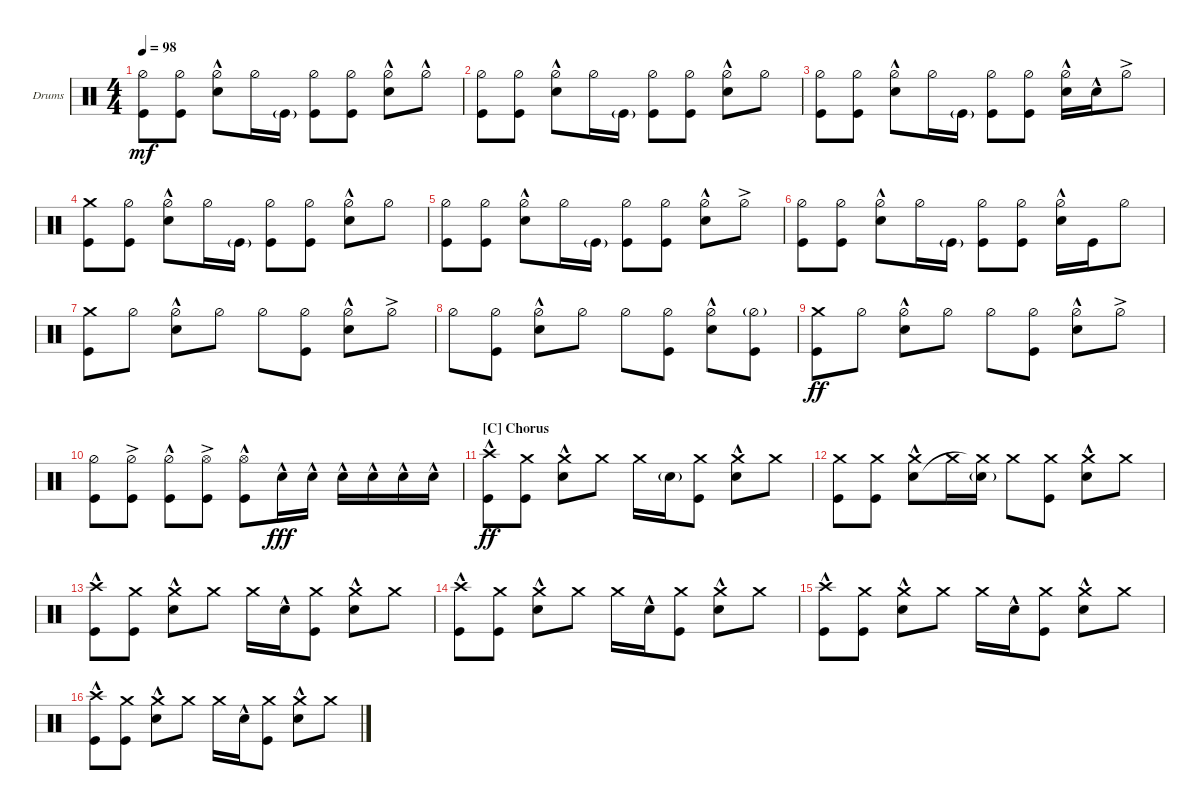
\defaultSystemsLayout 4
\bracketExtendMode groupsimilarinstruments
\firstSystemTrackNameOrientation horizontal
\otherSystemsTrackNameOrientation horizontal
\track ("Drumkit (Chad Smith)" "Drums") {instrument percussion}
\staff {score}
\articulation defaults
\ts (4 4)
\tempo 98
\clef neutral
\scale
0.333333
\ks c
("Kick (hit)" "Hi-Hat (half)").8{dy mf} ("Kick (hit)" "Hi-Hat (half)").8 ("Snare (hit) 2"{hac} "Hi-Hat (half)").8 "Hi-Hat (half)".16 "Kick (hit)"{g}.16 ("Kick (hit)" "Hi-Hat (half)").8 ("Kick (hit)" "Hi-Hat (half)").8 ("Snare (hit) 2"{hac} "Hi-Hat (half)").8 "Hi-Hat (half)"{hac}.8 |
\scale
0.333333 ("Kick (hit)" "Hi-Hat (half)").8 ("Kick (hit)" "Hi-Hat (half)").8 ("Snare (hit) 2"{hac} "Hi-Hat (half)").8 "Hi-Hat (half)".16 "Kick (hit)"{g}.16 ("Kick (hit)" "Hi-Hat (half)").8 ("Kick (hit)" "Hi-Hat (half)").8 ("Snare (hit) 2"{hac} "Hi-Hat (half)").8 "Hi-Hat (half)".8 |
\scale
0.333333 ("Kick (hit)" "Hi-Hat (half)").8 ("Kick (hit)" "Hi-Hat (half)").8 ("Snare (hit) 2"{hac} "Hi-Hat (half)").8 "Hi-Hat (half)".16 "Kick (hit)"{g}.16 ("Kick (hit)" "Hi-Hat (half)").8 ("Kick (hit)" "Hi-Hat (half)").8 ("Snare (hit) 2"{hac} "Hi-Hat (half)").16 "Snare (hit) 2"{hac}.16 "Hi-Hat (half)"{ac}.8 |
\scale
0.333333 ("Kick (hit)" "Crash medium (hit)").8 ("Kick (hit)" "Hi-Hat (half)").8 ("Snare (hit) 2"{hac} "Hi-Hat (half)").8 "Hi-Hat (half)".16 "Kick (hit)"{g}.16 ("Kick (hit)" "Hi-Hat (half)").8 ("Kick (hit)" "Hi-Hat (half)").8 ("Snare (hit) 2"{hac} "Hi-Hat (half)").8 "Hi-Hat (half)".8 |
\scale
0.333333 ("Kick (hit)" "Hi-Hat (half)").8 ("Kick (hit)" "Hi-Hat (half)").8 ("Snare (hit) 2"{hac} "Hi-Hat (half)").8 "Hi-Hat (half)".16 "Kick (hit)"{g}.16 ("Kick (hit)" "Hi-Hat (half)").8 ("Kick (hit)" "Hi-Hat (half)").8 ("Snare (hit) 2"{hac} "Hi-Hat (half)").8 "Hi-Hat (half)"{ac}.8 |
\scale
0.333333 ("Kick (hit)" "Hi-Hat (half)").8 ("Kick (hit)" "Hi-Hat (half)").8 ("Snare (hit) 2"{hac} "Hi-Hat (half)").8 "Hi-Hat (half)".16 "Kick (hit)"{g}.16 ("Kick (hit)" "Hi-Hat (half)").8 ("Kick (hit)" "Hi-Hat (half)").8 ("Snare (hit) 2"{hac} "Hi-Hat (half)").16 "Kick (hit)".16 "Hi-Hat (half)".8 |
\scale
0.333333 ("Kick (hit)" "Crash medium (hit)").8 "Hi-Hat (half)".8 ("Snare (hit) 2"{hac} "Hi-Hat (half)").8 "Hi-Hat (half)".8 "Hi-Hat (half)".8 ("Kick (hit)" "Hi-Hat (half)").8 ("Snare (hit) 2"{hac} "Hi-Hat (half)").8 "Hi-Hat (half)"{ac}.8 |
\scale
0.333333 "Hi-Hat (half)".8 ("Hi-Hat (half)" "Kick (hit)").8 ("Snare (hit) 2"{hac} "Hi-Hat (half)").8 "Hi-Hat (half)".8 "Hi-Hat (half)".8 ("Kick (hit)" "Hi-Hat (half)").8 ("Snare (hit) 2"{hac} "Hi-Hat (half)").8 ("Kick (hit)" "Hi-Hat (half)"{g}).8 |
\scale
0.333333 ("Kick (hit)" "Crash medium (hit)").8{dy ff} "Hi-Hat (half)".8 ("Snare (hit) 2"{hac} "Hi-Hat (half)").8 "Hi-Hat (half)".8 "Hi-Hat (half)".8 ("Kick (hit)" "Hi-Hat (half)").8 ("Snare (hit) 2"{hac} "Hi-Hat (half)").8 "Hi-Hat (half)"{ac}.8 |
\scale
0.333333 ("Kick (hit)" "Hi-Hat (half)").8 ("Kick (hit)" "Hi-Hat (half)"{ac}).8 ("Kick (hit)" "Hi-Hat (half)"{hac}).8 ("Kick (hit)" "Hi-Hat (open)"{ac}).8 ("Kick (hit)" "Hi-Hat (open)"{hac}).8 "Snare (hit) 2"{hac}.16{dy fff} "Snare (hit) 2"{hac}.16 "Snare (hit) 2"{hac}.16 "Snare (hit) 2"{hac}.16 "Snare (hit) 2"{hac}.16 "Snare (hit) 2"{hac}.16 |
\section ("C" "Chorus")
\scale
0.333333 ("Kick (hit)" "Crash high (hit)"{hac}).8{dy ff} ("Crash medium (hit)" "Kick (hit)").8 ("Crash medium (hit)" "Snare (hit) 2"{hac}).8 "Crash medium (hit)".8 "Crash medium (hit)".16 "Snare (hit) 2"{g}.16 ("Crash medium (hit)" "Kick (hit)").8 ("Crash medium (hit)" "Snare (hit) 2"{hac}).8 "Crash medium (hit)".8 |
\scale
0.333333 ("Crash medium (hit)" "Kick (hit)").8 ("Crash medium (hit)" "Kick (hit)").8 ("Crash medium (hit)" "Snare (hit) 2"{hac}).8 "Crash medium (hit)".16 ("Snare (hit) 2"{g} "Crash medium (hit)"{t}).16 "Crash medium (hit)".8 ("Crash medium (hit)" "Kick (hit)").8 ("Crash medium (hit)" "Snare (hit) 2"{hac}).8 "Crash medium (hit)".8 |
\scale
0.333333 ("Kick (hit)" "Crash high (hit)"{hac}).8 ("Crash medium (hit)" "Kick (hit)").8 ("Crash medium (hit)" "Snare (hit) 2"{hac}).8 "Crash medium (hit)".8 "Crash medium (hit)".16 "Snare (hit) 2"{hac}.16 ("Crash medium (hit)" "Kick (hit)").8 ("Crash medium (hit)" "Snare (hit) 2"{hac}).8 "Crash medium (hit)".8 |
\scale
0.333333 ("Kick (hit)" "Crash high (hit)"{hac}).8 ("Crash medium (hit)" "Kick (hit)").8 ("Crash medium (hit)" "Snare (hit) 2"{hac}).8 "Crash medium (hit)".8 "Crash medium (hit)".16 "Snare (hit) 2"{hac}.16 ("Crash medium (hit)" "Kick (hit)").8 ("Crash medium (hit)" "Snare (hit) 2"{hac}).8 "Crash medium (hit)".8 |
\scale
0.333333 ("Kick (hit)" "Crash high (hit)"{hac}).8 ("Crash medium (hit)" "Kick (hit)").8 ("Crash medium (hit)" "Snare (hit) 2"{hac}).8 "Crash medium (hit)".8 "Crash medium (hit)".16 "Snare (hit) 2"{hac}.16 ("Crash medium (hit)" "Kick (hit)").8 ("Crash medium (hit)" "Snare (hit) 2"{hac}).8 "Crash medium (hit)".8 |
\scale
0.333333 ("Kick (hit)" "Crash high (hit)"{hac}).8 ("Crash medium (hit)" "Kick (hit)").8 ("Crash medium (hit)" "Snare (hit) 2"{hac}).8 "Crash medium (hit)".8 "Crash medium (hit)".16 "Snare (hit) 2"{hac}.16 ("Crash medium (hit)" "Kick (hit)").8 ("Crash medium (hit)" "Snare (hit) 2"{hac}).8 "Crash medium (hit)".8
